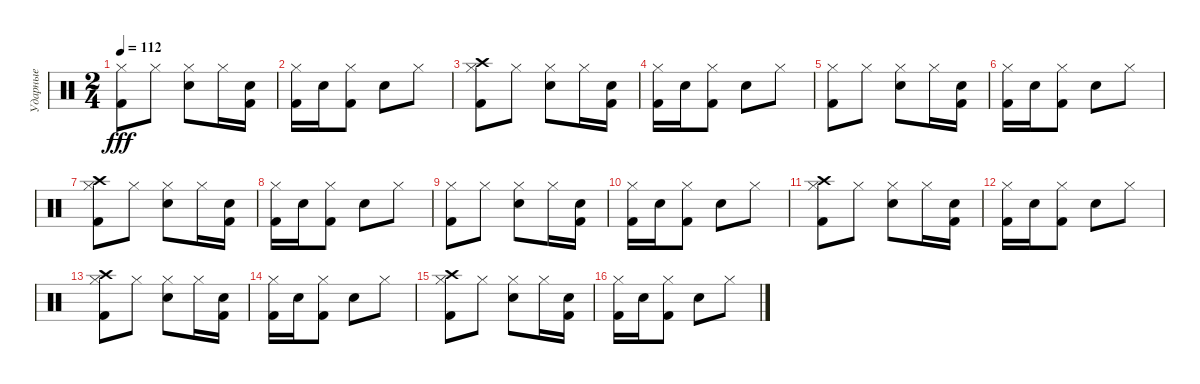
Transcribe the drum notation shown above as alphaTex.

\track ("Ударные" "Ударные") {instrument percussion}
\staff {score}
\articulation defaults
\ts (2 4)
\tempo 112
\clef neutral
\ks c
("Kick (hit) 2" "Hi-Hat (closed)").8{dy fff} "Hi-Hat (closed)".8 ("Electric Snare (hit)" "Hi-Hat (closed)").8 "Hi-Hat (closed)".16 ("Electric Snare (hit)" "Kick (hit) 2").16 |
("Kick (hit) 2" "Hi-Hat (closed)").16 "Electric Snare (hit)".16 ("Kick (hit) 2" "Hi-Hat (closed)").8 "Electric Snare (hit)".8 "Hi-Hat (closed)".8 |
("Kick (hit) 2" "Crash high (hit)" "Hi-Hat (closed)").8 "Hi-Hat (closed)".8 ("Electric Snare (hit)" "Hi-Hat (closed)").8 "Hi-Hat (closed)".16 ("Electric Snare (hit)" "Kick (hit) 2").16 |
("Kick (hit) 2" "Hi-Hat (closed)").16 "Electric Snare (hit)".16 ("Kick (hit) 2" "Hi-Hat (closed)").8 "Electric Snare (hit)".8 "Hi-Hat (closed)".8 |
("Kick (hit) 2" "Hi-Hat (closed)").8 "Hi-Hat (closed)".8 ("Electric Snare (hit)" "Hi-Hat (closed)").8 "Hi-Hat (closed)".16 ("Electric Snare (hit)" "Kick (hit) 2").16 |
("Kick (hit) 2" "Hi-Hat (closed)").16 "Electric Snare (hit)".16 ("Kick (hit) 2" "Hi-Hat (closed)").8 "Electric Snare (hit)".8 "Hi-Hat (closed)".8 |
("Kick (hit) 2" "Hi-Hat (closed)" "Crash high (hit)").8 "Hi-Hat (closed)".8 ("Electric Snare (hit)" "Hi-Hat (closed)").8 "Hi-Hat (closed)".16 ("Electric Snare (hit)" "Kick (hit) 2").16 |
("Kick (hit) 2" "Hi-Hat (closed)").16 "Electric Snare (hit)".16 ("Kick (hit) 2" "Hi-Hat (closed)").8 "Electric Snare (hit)".8 "Hi-Hat (closed)".8 |
("Kick (hit) 2" "Hi-Hat (closed)").8 "Hi-Hat (closed)".8 ("Electric Snare (hit)" "Hi-Hat (closed)").8 "Hi-Hat (closed)".16 ("Electric Snare (hit)" "Kick (hit) 2").16 |
("Kick (hit) 2" "Hi-Hat (closed)").16 "Electric Snare (hit)".16 ("Kick (hit) 2" "Hi-Hat (closed)").8 "Electric Snare (hit)".8 "Hi-Hat (closed)".8 |
("Kick (hit) 2" "Hi-Hat (closed)" "Crash high (hit)").8 "Hi-Hat (closed)".8 ("Electric Snare (hit)" "Hi-Hat (closed)").8 "Hi-Hat (closed)".16 ("Electric Snare (hit)" "Kick (hit) 2").16 |
("Kick (hit) 2" "Hi-Hat (closed)").16 "Electric Snare (hit)".16 ("Kick (hit) 2" "Hi-Hat (closed)").8 "Electric Snare (hit)".8 "Hi-Hat (closed)".8 |
("Kick (hit) 2" "Crash high (hit)" "Hi-Hat (closed)").8 "Hi-Hat (closed)".8 ("Electric Snare (hit)" "Hi-Hat (closed)").8 "Hi-Hat (closed)".16 ("Electric Snare (hit)" "Kick (hit) 2").16 |
("Kick (hit) 2" "Hi-Hat (closed)").16 "Electric Snare (hit)".16 ("Kick (hit) 2" "Hi-Hat (closed)").8 "Electric Snare (hit)".8 "Hi-Hat (closed)".8 |
("Kick (hit) 2" "Hi-Hat (closed)" "Crash high (hit)").8 "Hi-Hat (closed)".8 ("Electric Snare (hit)" "Hi-Hat (closed)").8 "Hi-Hat (closed)".16 ("Electric Snare (hit)" "Kick (hit) 2").16 |
("Kick (hit) 2" "Hi-Hat (closed)").16 "Electric Snare (hit)".16 ("Kick (hit) 2" "Hi-Hat (closed)").8 "Electric Snare (hit)".8 "Hi-Hat (closed)".8
